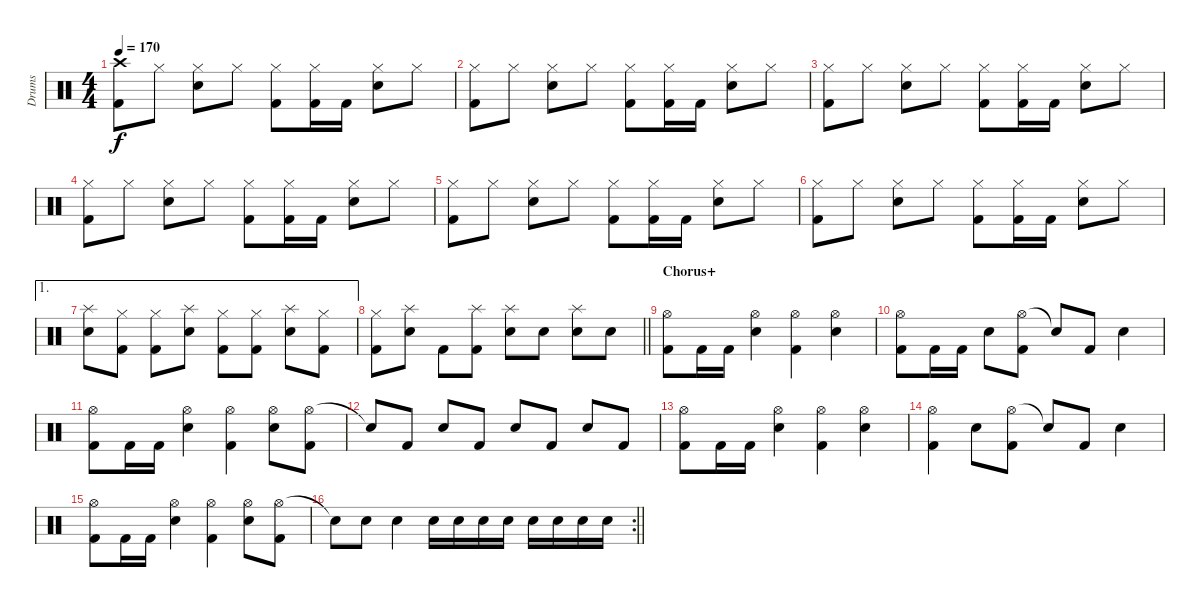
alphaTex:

\track ("Drums" "Drums") {instrument percussion}
\staff {score}
\articulation defaults
\ts (4 4)
\tempo 170
\clef neutral
\ks c
("Crash high (hit)" "Kick (hit) 2").8{dy f} "Hi-Hat (closed)".8 ("Hi-Hat (closed)" "Snare (hit) 2").8 "Hi-Hat (closed)".8 ("Hi-Hat (closed)" "Kick (hit) 2").8 ("Hi-Hat (closed)" "Kick (hit) 2").16 "Kick (hit) 2".16 ("Hi-Hat (closed)" "Snare (hit) 2").8 "Hi-Hat (closed)".8 |
("Hi-Hat (closed)" "Kick (hit) 2").8 "Hi-Hat (closed)".8 ("Hi-Hat (closed)" "Snare (hit) 2").8 "Hi-Hat (closed)".8 ("Hi-Hat (closed)" "Kick (hit) 2").8 ("Hi-Hat (closed)" "Kick (hit) 2").16 "Kick (hit) 2".16 ("Hi-Hat (closed)" "Snare (hit) 2").8 "Hi-Hat (closed)".8 |
("Hi-Hat (closed)" "Kick (hit) 2").8 "Hi-Hat (closed)".8 ("Hi-Hat (closed)" "Snare (hit) 2").8 "Hi-Hat (closed)".8 ("Hi-Hat (closed)" "Kick (hit) 2").8 ("Hi-Hat (closed)" "Kick (hit) 2").16 "Kick (hit) 2".16 ("Hi-Hat (closed)" "Snare (hit) 2").8 "Hi-Hat (closed)".8 |
("Hi-Hat (closed)" "Kick (hit) 2").8 "Hi-Hat (closed)".8 ("Hi-Hat (closed)" "Snare (hit) 2").8 "Hi-Hat (closed)".8 ("Hi-Hat (closed)" "Kick (hit) 2").8 ("Hi-Hat (closed)" "Kick (hit) 2").16 "Kick (hit) 2".16 ("Hi-Hat (closed)" "Snare (hit) 2").8 "Hi-Hat (closed)".8 |
("Hi-Hat (closed)" "Kick (hit) 2").8 "Hi-Hat (closed)".8 ("Hi-Hat (closed)" "Snare (hit) 2").8 "Hi-Hat (closed)".8 ("Hi-Hat (closed)" "Kick (hit) 2").8 ("Hi-Hat (closed)" "Kick (hit) 2").16 "Kick (hit) 2".16 ("Hi-Hat (closed)" "Snare (hit) 2").8 "Hi-Hat (closed)".8 |
("Hi-Hat (closed)" "Kick (hit) 2").8 "Hi-Hat (closed)".8 ("Hi-Hat (closed)" "Snare (hit) 2").8 "Hi-Hat (closed)".8 ("Hi-Hat (closed)" "Kick (hit) 2").8 ("Hi-Hat (closed)" "Kick (hit) 2").16 "Kick (hit) 2".16 ("Hi-Hat (closed)" "Snare (hit) 2").8 "Hi-Hat (closed)".8 |
\ae 1
("Splash (hit)" "Snare (hit) 2").8 ("Hi-Hat (closed)" "Kick (hit) 2").8 ("Hi-Hat (closed)" "Kick (hit) 2").8 ("Splash (hit)" "Snare (hit) 2").8 ("Hi-Hat (closed)" "Kick (hit) 2").8 ("Hi-Hat (closed)" "Kick (hit) 2").8 ("Splash (hit)" "Snare (hit) 2").8 ("Hi-Hat (closed)" "Kick (hit) 2").8 |
\barLineRight lightlight
("Hi-Hat (closed)" "Kick (hit) 2").8 ("Splash (hit)" "Snare (hit) 2").8 "Kick (hit) 2".8 ("Splash (hit)" "Kick (hit) 2").8 ("Splash (hit)" "Snare (hit) 2").8 "Snare (hit) 2".8 ("Splash (hit)" "Snare (hit) 2").8 "Snare (hit) 2".8 |
\section ("" "Chorus+")
("Hi-Hat (open)" "Kick (hit) 2").8 "Kick (hit) 2".16 "Kick (hit) 2".16 ("Hi-Hat (open)" "Snare (hit) 2").4 ("Hi-Hat (open)" "Kick (hit) 2").4 ("Hi-Hat (open)" "Snare (hit) 2").4 |
("Hi-Hat (open)" "Kick (hit) 2").8 "Kick (hit) 2".16 "Kick (hit) 2".16 "Snare (hit) 2".8 ("Hi-Hat (open)" "Kick (hit) 2").8 "Snare (hit)"{t}.8 "Kick (hit) 2".8 "Snare (hit) 2".4 |
("Hi-Hat (open)" "Kick (hit) 2").8 "Kick (hit) 2".16 "Kick (hit) 2".16 ("Hi-Hat (open)" "Snare (hit) 2").4 ("Hi-Hat (open)" "Kick (hit) 2").4 ("Hi-Hat (open)" "Snare (hit) 2").8 ("Hi-Hat (open)" "Kick (hit) 2").8 |
"Snare (hit)"{t}.8 "Kick (hit) 2".8 "Snare (hit) 2".8 "Kick (hit) 2".8 "Snare (hit) 2".8 "Kick (hit) 2".8 "Snare (hit) 2".8 "Kick (hit) 2".8 |
("Hi-Hat (open)" "Kick (hit) 2").8 "Kick (hit) 2".16 "Kick (hit) 2".16 ("Hi-Hat (open)" "Snare (hit) 2").4 ("Hi-Hat (open)" "Kick (hit) 2").4 ("Hi-Hat (open)" "Snare (hit) 2").4 |
("Hi-Hat (open)" "Kick (hit) 2").4 "Snare (hit) 2".8 ("Hi-Hat (open)" "Kick (hit) 2").8 "Snare (hit)"{t}.8 "Kick (hit) 2".8 "Snare (hit) 2".4 |
("Hi-Hat (open)" "Kick (hit) 2").8 "Kick (hit) 2".16 "Kick (hit) 2".16 ("Hi-Hat (open)" "Snare (hit) 2").4 ("Hi-Hat (open)" "Kick (hit) 2").4 ("Hi-Hat (open)" "Snare (hit) 2").8 ("Hi-Hat (open)" "Kick (hit) 2").8 |
\rc 2
\barLineRight lightlight "Snare (hit)"{t}.8 "Snare (hit) 2".8 "Snare (hit) 2".4 "Snare (hit) 2".16 "Snare (hit) 2".16 "Snare (hit) 2".16 "Snare (hit) 2".16 "Snare (hit) 2".16 "Snare (hit) 2".16 "Snare (hit) 2".16 "Snare (hit) 2".16
